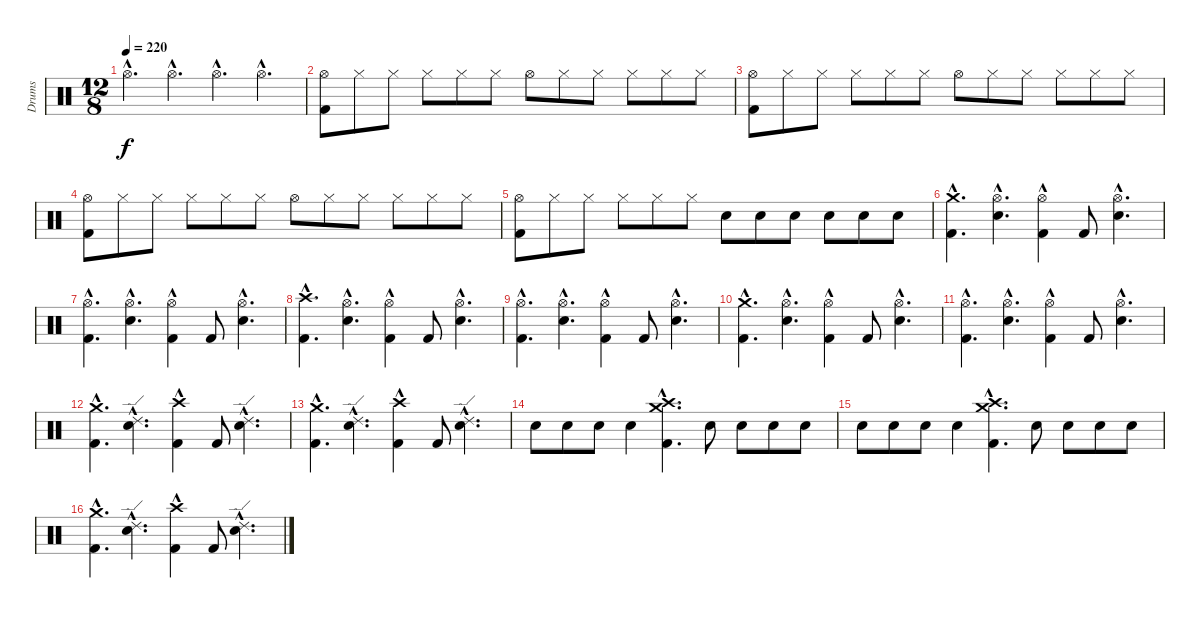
\track ("Drums" "Drums") {instrument percussion}
\staff {score}
\articulation defaults
\ts (12 8)
\tempo 220
\clef neutral
\ks c "Hi-Hat (open)"{hac}.4{d dy f} "Hi-Hat (open)"{hac}.4{d} "Hi-Hat (open)"{hac}.4{d} "Hi-Hat (open)"{hac}.4{d}
|
("Kick (hit) 2" "Hi-Hat (open)").8 "Hi-Hat (closed)".8 "Hi-Hat (closed)".8 "Hi-Hat (closed)".8 "Hi-Hat (closed)".8 "Hi-Hat (closed)".8 "Hi-Hat (open)".8 "Hi-Hat (closed)".8 "Hi-Hat (closed)".8 "Hi-Hat (closed)".8 "Hi-Hat (closed)".8 "Hi-Hat (closed)".8 |
("Kick (hit) 2" "Hi-Hat (open)").8 "Hi-Hat (closed)".8 "Hi-Hat (closed)".8 "Hi-Hat (closed)".8 "Hi-Hat (closed)".8 "Hi-Hat (closed)".8 "Hi-Hat (open)".8 "Hi-Hat (closed)".8 "Hi-Hat (closed)".8 "Hi-Hat (closed)".8 "Hi-Hat (closed)".8 "Hi-Hat (closed)".8 |
("Kick (hit) 2" "Hi-Hat (open)").8 "Hi-Hat (closed)".8 "Hi-Hat (closed)".8 "Hi-Hat (closed)".8 "Hi-Hat (closed)".8 "Hi-Hat (closed)".8 "Hi-Hat (open)".8 "Hi-Hat (closed)".8 "Hi-Hat (closed)".8 "Hi-Hat (closed)".8 "Hi-Hat (closed)".8 "Hi-Hat (closed)".8 |
("Kick (hit) 2" "Hi-Hat (open)").8 "Hi-Hat (closed)".8 "Hi-Hat (closed)".8 "Hi-Hat (closed)".8 "Hi-Hat (closed)".8 "Hi-Hat (closed)".8 "Snare (hit) 2".8 "Snare (hit) 2".8 "Snare (hit) 2".8 "Snare (hit) 2".8 "Snare (hit) 2".8 "Snare (hit) 2".8 |
("Kick (hit) 2"{hac} "Crash medium (hit)"{hac}).4{d} ("Snare (hit) 2"{hac} "Hi-Hat (open)"{hac}).4{d} ("Kick (hit) 2" "Hi-Hat (open)"{hac}).4 "Kick (hit) 2".8 ("Snare (hit) 2"{hac} "Hi-Hat (open)"{hac}).4{d} |
("Hi-Hat (open)"{hac} "Kick (hit) 2"{hac}).4{d} ("Snare (hit) 2"{hac} "Hi-Hat (open)"{hac}).4{d} ("Kick (hit) 2" "Hi-Hat (open)"{hac}).4 "Kick (hit) 2".8 ("Snare (hit) 2"{hac} "Hi-Hat (open)"{hac}).4{d} |
("Kick (hit) 2"{hac} "Crash high (hit)"{hac}).4{d} ("Snare (hit) 2"{hac} "Hi-Hat (open)"{hac}).4{d} ("Kick (hit) 2" "Hi-Hat (open)"{hac}).4 "Kick (hit) 2".8 ("Snare (hit) 2"{hac} "Hi-Hat (open)"{hac}).4{d} |
("Hi-Hat (open)"{hac} "Kick (hit) 2"{hac}).4{d} ("Snare (hit) 2"{hac} "Hi-Hat (open)"{hac}).4{d} ("Kick (hit) 2" "Hi-Hat (open)"{hac}).4 "Kick (hit) 2".8 ("Snare (hit) 2"{hac} "Hi-Hat (open)"{hac}).4{d} |
("Kick (hit) 2"{hac} "Crash medium (hit)"{hac}).4{d} ("Snare (hit) 2"{hac} "Hi-Hat (open)"{hac}).4{d} ("Kick (hit) 2" "Hi-Hat (open)"{hac}).4 "Kick (hit) 2".8 ("Snare (hit) 2"{hac} "Hi-Hat (open)"{hac}).4{d} |
("Hi-Hat (open)"{hac} "Kick (hit) 2"{hac}).4{d} ("Snare (hit) 2"{hac} "Hi-Hat (open)"{hac}).4{d} ("Kick (hit) 2" "Hi-Hat (open)"{hac}).4 "Kick (hit) 2".8 ("Snare (hit) 2"{hac} "Hi-Hat (open)"{hac}).4{d} |
("Kick (hit) 2"{hac} "Crash medium (hit)"{hac}).4{d} ("Ride (edge) 2"{hac} "Snare (hit) 2"{hac}).4{d} ("Kick (hit) 2" "Crash high (hit)"{hac}).4 "Kick (hit) 2".8 ("Ride (edge) 2"{hac} "Snare (hit) 2"{hac}).4{d} |
("Kick (hit) 2"{hac} "Crash medium (hit)"{hac}).4{d} ("Ride (edge) 2"{hac} "Snare (hit) 2"{hac}).4{d} ("Kick (hit) 2" "Crash high (hit)"{hac}).4 "Kick (hit) 2".8 ("Ride (edge) 2"{hac} "Snare (hit) 2"{hac}).4{d} |
"Snare (hit) 2".8 "Snare (hit) 2".8 "Snare (hit) 2".8 "Snare (hit) 2".4 ("Crash medium (hit)"{hac} "Crash high (hit)"{hac} "Kick (hit) 2"{hac}).4{d} "Snare (hit) 2".8 "Snare (hit) 2".8 "Snare (hit) 2".8 "Snare (hit) 2".8 |
"Snare (hit) 2".8 "Snare (hit) 2".8 "Snare (hit) 2".8 "Snare (hit) 2".4 ("Crash medium (hit)"{hac} "Crash high (hit)"{hac} "Kick (hit) 2"{hac}).4{d} "Snare (hit) 2".8 "Snare (hit) 2".8 "Snare (hit) 2".8 "Snare (hit) 2".8 |
("Kick (hit) 2"{hac} "Crash medium (hit)"{hac}).4{d} ("Ride (edge) 2"{hac} "Snare (hit) 2"{hac}).4{d} ("Kick (hit) 2" "Crash high (hit)"{hac}).4 "Kick (hit) 2".8 ("Ride (edge) 2"{hac} "Snare (hit) 2"{hac}).4{d}
